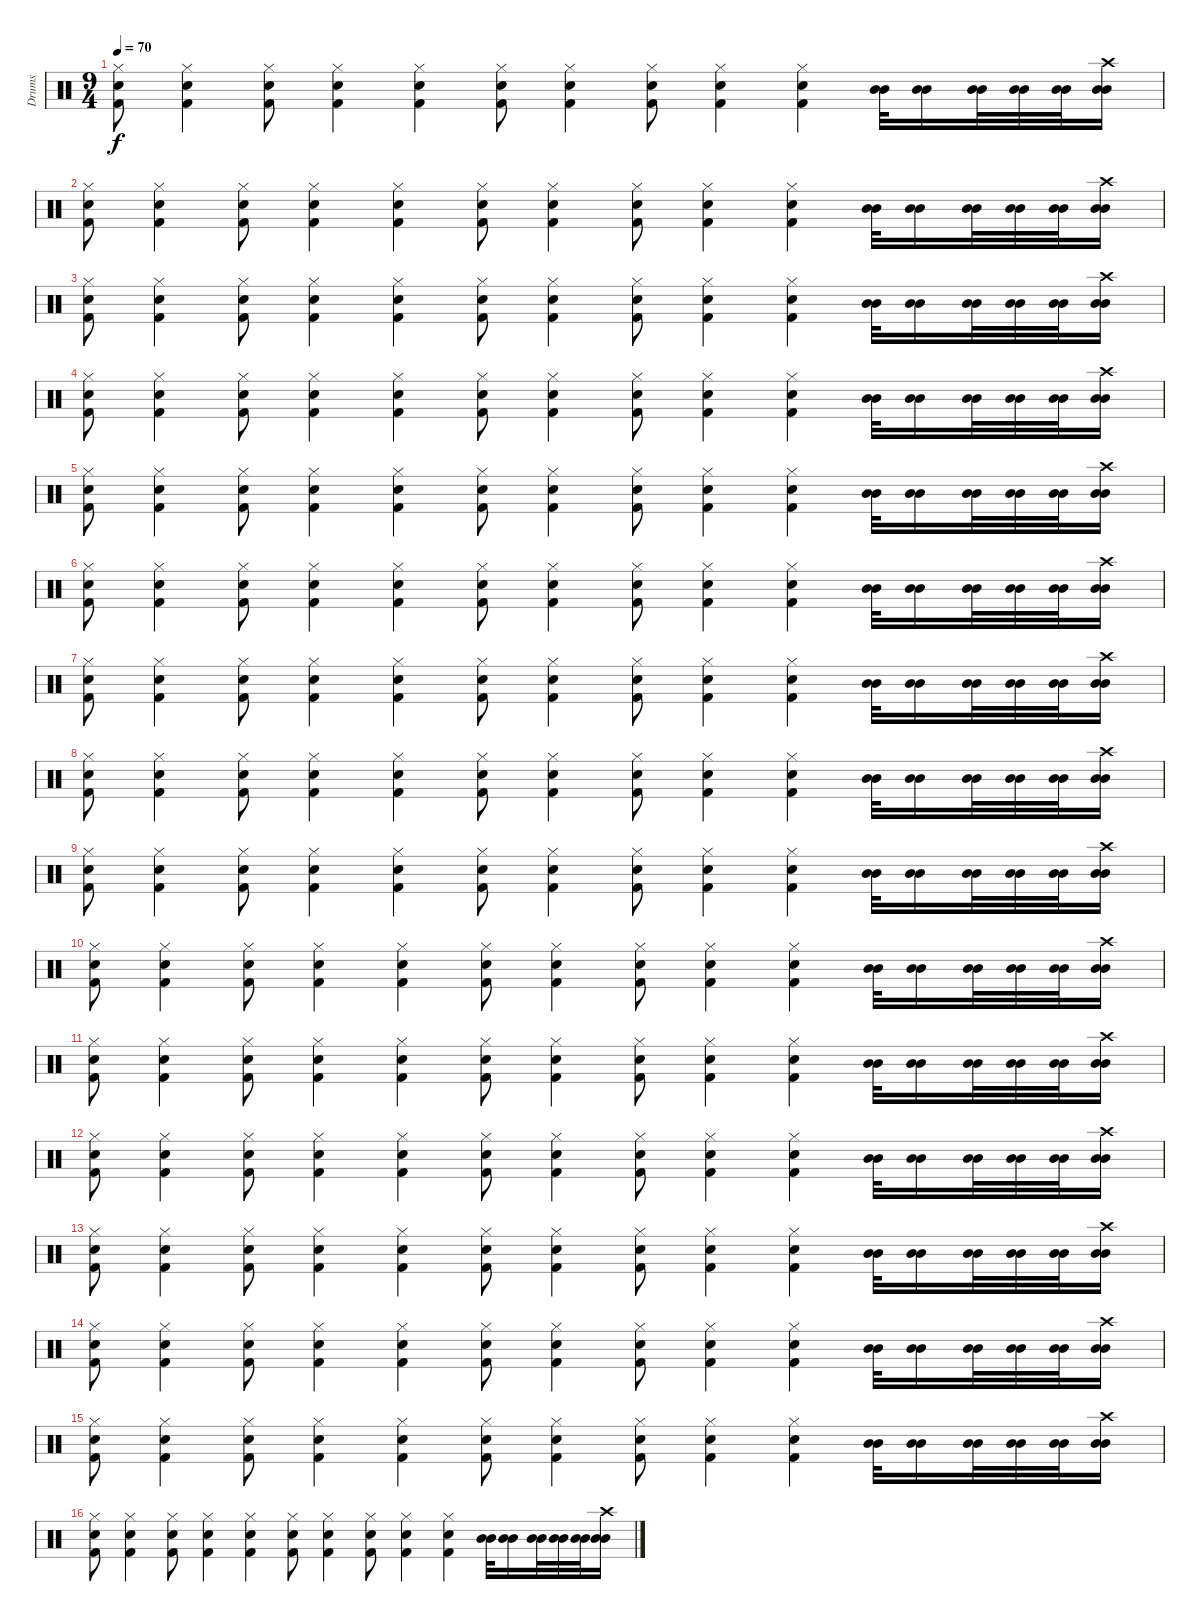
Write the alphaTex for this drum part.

\track ("Drums" "Drums") {instrument percussion}
\staff {score}
\articulation defaults
\ts (9 4)
\tempo 70
\clef neutral
\ks c
("Hi-Hat (closed)" "Snare (hit) 2" "Kick (hit) 2").8{dy f} ("Hi-Hat (closed)" "Snare (hit) 2" "Kick (hit) 2").4 ("Hi-Hat (closed)" "Snare (hit) 2" "Kick (hit) 2").8 ("Hi-Hat (closed)" "Snare (hit) 2" "Kick (hit) 2").4 ("Hi-Hat (closed)" "Snare (hit) 2" "Kick (hit) 2").4 ("Hi-Hat (closed)" "Snare (hit) 2" "Kick (hit) 2").8 ("Hi-Hat (closed)" "Snare (hit) 2" "Kick (hit) 2").4 ("Hi-Hat (closed)" "Snare (hit) 2" "Kick (hit) 2").8 ("Hi-Hat (closed)" "Snare (hit) 2" "Kick (hit) 2").4 ("Hi-Hat (closed)" "Snare (hit) 2" "Kick (hit) 2").4 ("Mid Tom (hit)" "Mid Tom (hit)").32 ("Mid Tom (hit)" "Mid Tom (hit)").16 ("Mid Tom (hit)" "Mid Tom (hit)").32 ("Mid Tom (hit)" "Mid Tom (hit)").32 ("Mid Tom (hit)" "Mid Tom (hit)").32 ("Crash high (hit)" "Mid Tom (hit)" "Mid Tom (hit)").16 |
("Hi-Hat (closed)" "Snare (hit) 2" "Kick (hit) 2").8 ("Hi-Hat (closed)" "Snare (hit) 2" "Kick (hit) 2").4 ("Hi-Hat (closed)" "Snare (hit) 2" "Kick (hit) 2").8 ("Hi-Hat (closed)" "Snare (hit) 2" "Kick (hit) 2").4 ("Hi-Hat (closed)" "Snare (hit) 2" "Kick (hit) 2").4 ("Hi-Hat (closed)" "Snare (hit) 2" "Kick (hit) 2").8 ("Hi-Hat (closed)" "Snare (hit) 2" "Kick (hit) 2").4 ("Hi-Hat (closed)" "Snare (hit) 2" "Kick (hit) 2").8 ("Hi-Hat (closed)" "Snare (hit) 2" "Kick (hit) 2").4 ("Hi-Hat (closed)" "Snare (hit) 2" "Kick (hit) 2").4 ("Mid Tom (hit)" "Mid Tom (hit)").32 ("Mid Tom (hit)" "Mid Tom (hit)").16 ("Mid Tom (hit)" "Mid Tom (hit)").32 ("Mid Tom (hit)" "Mid Tom (hit)").32 ("Mid Tom (hit)" "Mid Tom (hit)").32 ("Crash high (hit)" "Mid Tom (hit)" "Mid Tom (hit)").16 |
("Hi-Hat (closed)" "Snare (hit) 2" "Kick (hit) 2").8 ("Hi-Hat (closed)" "Snare (hit) 2" "Kick (hit) 2").4 ("Hi-Hat (closed)" "Snare (hit) 2" "Kick (hit) 2").8 ("Hi-Hat (closed)" "Snare (hit) 2" "Kick (hit) 2").4 ("Hi-Hat (closed)" "Snare (hit) 2" "Kick (hit) 2").4 ("Hi-Hat (closed)" "Snare (hit) 2" "Kick (hit) 2").8 ("Hi-Hat (closed)" "Snare (hit) 2" "Kick (hit) 2").4 ("Hi-Hat (closed)" "Snare (hit) 2" "Kick (hit) 2").8 ("Hi-Hat (closed)" "Snare (hit) 2" "Kick (hit) 2").4 ("Hi-Hat (closed)" "Snare (hit) 2" "Kick (hit) 2").4 ("Mid Tom (hit)" "Mid Tom (hit)").32 ("Mid Tom (hit)" "Mid Tom (hit)").16 ("Mid Tom (hit)" "Mid Tom (hit)").32 ("Mid Tom (hit)" "Mid Tom (hit)").32 ("Mid Tom (hit)" "Mid Tom (hit)").32 ("Crash high (hit)" "Mid Tom (hit)" "Mid Tom (hit)").16 |
("Hi-Hat (closed)" "Snare (hit) 2" "Kick (hit) 2").8 ("Hi-Hat (closed)" "Snare (hit) 2" "Kick (hit) 2").4 ("Hi-Hat (closed)" "Snare (hit) 2" "Kick (hit) 2").8 ("Hi-Hat (closed)" "Snare (hit) 2" "Kick (hit) 2").4 ("Hi-Hat (closed)" "Snare (hit) 2" "Kick (hit) 2").4 ("Hi-Hat (closed)" "Snare (hit) 2" "Kick (hit) 2").8 ("Hi-Hat (closed)" "Snare (hit) 2" "Kick (hit) 2").4 ("Hi-Hat (closed)" "Snare (hit) 2" "Kick (hit) 2").8 ("Hi-Hat (closed)" "Snare (hit) 2" "Kick (hit) 2").4 ("Hi-Hat (closed)" "Snare (hit) 2" "Kick (hit) 2").4 ("Mid Tom (hit)" "Mid Tom (hit)").32 ("Mid Tom (hit)" "Mid Tom (hit)").16 ("Mid Tom (hit)" "Mid Tom (hit)").32 ("Mid Tom (hit)" "Mid Tom (hit)").32 ("Mid Tom (hit)" "Mid Tom (hit)").32 ("Crash high (hit)" "Mid Tom (hit)" "Mid Tom (hit)").16 |
("Hi-Hat (closed)" "Snare (hit) 2" "Kick (hit) 2").8 ("Hi-Hat (closed)" "Snare (hit) 2" "Kick (hit) 2").4 ("Hi-Hat (closed)" "Snare (hit) 2" "Kick (hit) 2").8 ("Hi-Hat (closed)" "Snare (hit) 2" "Kick (hit) 2").4 ("Hi-Hat (closed)" "Snare (hit) 2" "Kick (hit) 2").4 ("Hi-Hat (closed)" "Snare (hit) 2" "Kick (hit) 2").8 ("Hi-Hat (closed)" "Snare (hit) 2" "Kick (hit) 2").4 ("Hi-Hat (closed)" "Snare (hit) 2" "Kick (hit) 2").8 ("Hi-Hat (closed)" "Snare (hit) 2" "Kick (hit) 2").4 ("Hi-Hat (closed)" "Snare (hit) 2" "Kick (hit) 2").4 ("Mid Tom (hit)" "Mid Tom (hit)").32 ("Mid Tom (hit)" "Mid Tom (hit)").16 ("Mid Tom (hit)" "Mid Tom (hit)").32 ("Mid Tom (hit)" "Mid Tom (hit)").32 ("Mid Tom (hit)" "Mid Tom (hit)").32 ("Crash high (hit)" "Mid Tom (hit)" "Mid Tom (hit)").16 |
("Hi-Hat (closed)" "Snare (hit) 2" "Kick (hit) 2").8 ("Hi-Hat (closed)" "Snare (hit) 2" "Kick (hit) 2").4 ("Hi-Hat (closed)" "Snare (hit) 2" "Kick (hit) 2").8 ("Hi-Hat (closed)" "Snare (hit) 2" "Kick (hit) 2").4 ("Hi-Hat (closed)" "Snare (hit) 2" "Kick (hit) 2").4 ("Hi-Hat (closed)" "Snare (hit) 2" "Kick (hit) 2").8 ("Hi-Hat (closed)" "Snare (hit) 2" "Kick (hit) 2").4 ("Hi-Hat (closed)" "Snare (hit) 2" "Kick (hit) 2").8 ("Hi-Hat (closed)" "Snare (hit) 2" "Kick (hit) 2").4 ("Hi-Hat (closed)" "Snare (hit) 2" "Kick (hit) 2").4 ("Mid Tom (hit)" "Mid Tom (hit)").32 ("Mid Tom (hit)" "Mid Tom (hit)").16 ("Mid Tom (hit)" "Mid Tom (hit)").32 ("Mid Tom (hit)" "Mid Tom (hit)").32 ("Mid Tom (hit)" "Mid Tom (hit)").32 ("Crash high (hit)" "Mid Tom (hit)" "Mid Tom (hit)").16 |
("Hi-Hat (closed)" "Snare (hit) 2" "Kick (hit) 2").8 ("Hi-Hat (closed)" "Snare (hit) 2" "Kick (hit) 2").4 ("Hi-Hat (closed)" "Snare (hit) 2" "Kick (hit) 2").8 ("Hi-Hat (closed)" "Snare (hit) 2" "Kick (hit) 2").4 ("Hi-Hat (closed)" "Snare (hit) 2" "Kick (hit) 2").4 ("Hi-Hat (closed)" "Snare (hit) 2" "Kick (hit) 2").8 ("Hi-Hat (closed)" "Snare (hit) 2" "Kick (hit) 2").4 ("Hi-Hat (closed)" "Snare (hit) 2" "Kick (hit) 2").8 ("Hi-Hat (closed)" "Snare (hit) 2" "Kick (hit) 2").4 ("Hi-Hat (closed)" "Snare (hit) 2" "Kick (hit) 2").4 ("Mid Tom (hit)" "Mid Tom (hit)").32 ("Mid Tom (hit)" "Mid Tom (hit)").16 ("Mid Tom (hit)" "Mid Tom (hit)").32 ("Mid Tom (hit)" "Mid Tom (hit)").32 ("Mid Tom (hit)" "Mid Tom (hit)").32 ("Crash high (hit)" "Mid Tom (hit)" "Mid Tom (hit)").16 |
("Hi-Hat (closed)" "Snare (hit) 2" "Kick (hit) 2").8 ("Hi-Hat (closed)" "Snare (hit) 2" "Kick (hit) 2").4 ("Hi-Hat (closed)" "Snare (hit) 2" "Kick (hit) 2").8 ("Hi-Hat (closed)" "Snare (hit) 2" "Kick (hit) 2").4 ("Hi-Hat (closed)" "Snare (hit) 2" "Kick (hit) 2").4 ("Hi-Hat (closed)" "Snare (hit) 2" "Kick (hit) 2").8 ("Hi-Hat (closed)" "Snare (hit) 2" "Kick (hit) 2").4 ("Hi-Hat (closed)" "Snare (hit) 2" "Kick (hit) 2").8 ("Hi-Hat (closed)" "Snare (hit) 2" "Kick (hit) 2").4 ("Hi-Hat (closed)" "Snare (hit) 2" "Kick (hit) 2").4 ("Mid Tom (hit)" "Mid Tom (hit)").32 ("Mid Tom (hit)" "Mid Tom (hit)").16 ("Mid Tom (hit)" "Mid Tom (hit)").32 ("Mid Tom (hit)" "Mid Tom (hit)").32 ("Mid Tom (hit)" "Mid Tom (hit)").32 ("Crash high (hit)" "Mid Tom (hit)" "Mid Tom (hit)").16 |
("Hi-Hat (closed)" "Snare (hit) 2" "Kick (hit) 2").8 ("Hi-Hat (closed)" "Snare (hit) 2" "Kick (hit) 2").4 ("Hi-Hat (closed)" "Snare (hit) 2" "Kick (hit) 2").8 ("Hi-Hat (closed)" "Snare (hit) 2" "Kick (hit) 2").4 ("Hi-Hat (closed)" "Snare (hit) 2" "Kick (hit) 2").4 ("Hi-Hat (closed)" "Snare (hit) 2" "Kick (hit) 2").8 ("Hi-Hat (closed)" "Snare (hit) 2" "Kick (hit) 2").4 ("Hi-Hat (closed)" "Snare (hit) 2" "Kick (hit) 2").8 ("Hi-Hat (closed)" "Snare (hit) 2" "Kick (hit) 2").4 ("Hi-Hat (closed)" "Snare (hit) 2" "Kick (hit) 2").4 ("Mid Tom (hit)" "Mid Tom (hit)").32 ("Mid Tom (hit)" "Mid Tom (hit)").16 ("Mid Tom (hit)" "Mid Tom (hit)").32 ("Mid Tom (hit)" "Mid Tom (hit)").32 ("Mid Tom (hit)" "Mid Tom (hit)").32 ("Crash high (hit)" "Mid Tom (hit)" "Mid Tom (hit)").16 |
("Hi-Hat (closed)" "Snare (hit) 2" "Kick (hit) 2").8 ("Hi-Hat (closed)" "Snare (hit) 2" "Kick (hit) 2").4 ("Hi-Hat (closed)" "Snare (hit) 2" "Kick (hit) 2").8 ("Hi-Hat (closed)" "Snare (hit) 2" "Kick (hit) 2").4 ("Hi-Hat (closed)" "Snare (hit) 2" "Kick (hit) 2").4 ("Hi-Hat (closed)" "Snare (hit) 2" "Kick (hit) 2").8 ("Hi-Hat (closed)" "Snare (hit) 2" "Kick (hit) 2").4 ("Hi-Hat (closed)" "Snare (hit) 2" "Kick (hit) 2").8 ("Hi-Hat (closed)" "Snare (hit) 2" "Kick (hit) 2").4 ("Hi-Hat (closed)" "Snare (hit) 2" "Kick (hit) 2").4 ("Mid Tom (hit)" "Mid Tom (hit)").32 ("Mid Tom (hit)" "Mid Tom (hit)").16 ("Mid Tom (hit)" "Mid Tom (hit)").32 ("Mid Tom (hit)" "Mid Tom (hit)").32 ("Mid Tom (hit)" "Mid Tom (hit)").32 ("Crash high (hit)" "Mid Tom (hit)" "Mid Tom (hit)").16 |
("Hi-Hat (closed)" "Snare (hit) 2" "Kick (hit) 2").8 ("Hi-Hat (closed)" "Snare (hit) 2" "Kick (hit) 2").4 ("Hi-Hat (closed)" "Snare (hit) 2" "Kick (hit) 2").8 ("Hi-Hat (closed)" "Snare (hit) 2" "Kick (hit) 2").4 ("Hi-Hat (closed)" "Snare (hit) 2" "Kick (hit) 2").4 ("Hi-Hat (closed)" "Snare (hit) 2" "Kick (hit) 2").8 ("Hi-Hat (closed)" "Snare (hit) 2" "Kick (hit) 2").4 ("Hi-Hat (closed)" "Snare (hit) 2" "Kick (hit) 2").8 ("Hi-Hat (closed)" "Snare (hit) 2" "Kick (hit) 2").4 ("Hi-Hat (closed)" "Snare (hit) 2" "Kick (hit) 2").4 ("Mid Tom (hit)" "Mid Tom (hit)").32 ("Mid Tom (hit)" "Mid Tom (hit)").16 ("Mid Tom (hit)" "Mid Tom (hit)").32 ("Mid Tom (hit)" "Mid Tom (hit)").32 ("Mid Tom (hit)" "Mid Tom (hit)").32 ("Crash high (hit)" "Mid Tom (hit)" "Mid Tom (hit)").16 |
("Hi-Hat (closed)" "Snare (hit) 2" "Kick (hit) 2").8 ("Hi-Hat (closed)" "Snare (hit) 2" "Kick (hit) 2").4 ("Hi-Hat (closed)" "Snare (hit) 2" "Kick (hit) 2").8 ("Hi-Hat (closed)" "Snare (hit) 2" "Kick (hit) 2").4 ("Hi-Hat (closed)" "Snare (hit) 2" "Kick (hit) 2").4 ("Hi-Hat (closed)" "Snare (hit) 2" "Kick (hit) 2").8 ("Hi-Hat (closed)" "Snare (hit) 2" "Kick (hit) 2").4 ("Hi-Hat (closed)" "Snare (hit) 2" "Kick (hit) 2").8 ("Hi-Hat (closed)" "Snare (hit) 2" "Kick (hit) 2").4 ("Hi-Hat (closed)" "Snare (hit) 2" "Kick (hit) 2").4 ("Mid Tom (hit)" "Mid Tom (hit)").32 ("Mid Tom (hit)" "Mid Tom (hit)").16 ("Mid Tom (hit)" "Mid Tom (hit)").32 ("Mid Tom (hit)" "Mid Tom (hit)").32 ("Mid Tom (hit)" "Mid Tom (hit)").32 ("Crash high (hit)" "Mid Tom (hit)" "Mid Tom (hit)").16 |
("Hi-Hat (closed)" "Snare (hit) 2" "Kick (hit) 2").8 ("Hi-Hat (closed)" "Snare (hit) 2" "Kick (hit) 2").4 ("Hi-Hat (closed)" "Snare (hit) 2" "Kick (hit) 2").8 ("Hi-Hat (closed)" "Snare (hit) 2" "Kick (hit) 2").4 ("Hi-Hat (closed)" "Snare (hit) 2" "Kick (hit) 2").4 ("Hi-Hat (closed)" "Snare (hit) 2" "Kick (hit) 2").8 ("Hi-Hat (closed)" "Snare (hit) 2" "Kick (hit) 2").4 ("Hi-Hat (closed)" "Snare (hit) 2" "Kick (hit) 2").8 ("Hi-Hat (closed)" "Snare (hit) 2" "Kick (hit) 2").4 ("Hi-Hat (closed)" "Snare (hit) 2" "Kick (hit) 2").4 ("Mid Tom (hit)" "Mid Tom (hit)").32 ("Mid Tom (hit)" "Mid Tom (hit)").16 ("Mid Tom (hit)" "Mid Tom (hit)").32 ("Mid Tom (hit)" "Mid Tom (hit)").32 ("Mid Tom (hit)" "Mid Tom (hit)").32 ("Crash high (hit)" "Mid Tom (hit)" "Mid Tom (hit)").16 |
("Hi-Hat (closed)" "Snare (hit) 2" "Kick (hit) 2").8 ("Hi-Hat (closed)" "Snare (hit) 2" "Kick (hit) 2").4 ("Hi-Hat (closed)" "Snare (hit) 2" "Kick (hit) 2").8 ("Hi-Hat (closed)" "Snare (hit) 2" "Kick (hit) 2").4 ("Hi-Hat (closed)" "Snare (hit) 2" "Kick (hit) 2").4 ("Hi-Hat (closed)" "Snare (hit) 2" "Kick (hit) 2").8 ("Hi-Hat (closed)" "Snare (hit) 2" "Kick (hit) 2").4 ("Hi-Hat (closed)" "Snare (hit) 2" "Kick (hit) 2").8 ("Hi-Hat (closed)" "Snare (hit) 2" "Kick (hit) 2").4 ("Hi-Hat (closed)" "Snare (hit) 2" "Kick (hit) 2").4 ("Mid Tom (hit)" "Mid Tom (hit)").32 ("Mid Tom (hit)" "Mid Tom (hit)").16 ("Mid Tom (hit)" "Mid Tom (hit)").32 ("Mid Tom (hit)" "Mid Tom (hit)").32 ("Mid Tom (hit)" "Mid Tom (hit)").32 ("Crash high (hit)" "Mid Tom (hit)" "Mid Tom (hit)").16 |
("Hi-Hat (closed)" "Snare (hit) 2" "Kick (hit) 2").8 ("Hi-Hat (closed)" "Snare (hit) 2" "Kick (hit) 2").4 ("Hi-Hat (closed)" "Snare (hit) 2" "Kick (hit) 2").8 ("Hi-Hat (closed)" "Snare (hit) 2" "Kick (hit) 2").4 ("Hi-Hat (closed)" "Snare (hit) 2" "Kick (hit) 2").4 ("Hi-Hat (closed)" "Snare (hit) 2" "Kick (hit) 2").8 ("Hi-Hat (closed)" "Snare (hit) 2" "Kick (hit) 2").4 ("Hi-Hat (closed)" "Snare (hit) 2" "Kick (hit) 2").8 ("Hi-Hat (closed)" "Snare (hit) 2" "Kick (hit) 2").4 ("Hi-Hat (closed)" "Snare (hit) 2" "Kick (hit) 2").4 ("Mid Tom (hit)" "Mid Tom (hit)").32 ("Mid Tom (hit)" "Mid Tom (hit)").16 ("Mid Tom (hit)" "Mid Tom (hit)").32 ("Mid Tom (hit)" "Mid Tom (hit)").32 ("Mid Tom (hit)" "Mid Tom (hit)").32 ("Crash high (hit)" "Mid Tom (hit)" "Mid Tom (hit)").16 |
("Hi-Hat (closed)" "Snare (hit) 2" "Kick (hit) 2").8 ("Hi-Hat (closed)" "Snare (hit) 2" "Kick (hit) 2").4 ("Hi-Hat (closed)" "Snare (hit) 2" "Kick (hit) 2").8 ("Hi-Hat (closed)" "Snare (hit) 2" "Kick (hit) 2").4 ("Hi-Hat (closed)" "Snare (hit) 2" "Kick (hit) 2").4 ("Hi-Hat (closed)" "Snare (hit) 2" "Kick (hit) 2").8 ("Hi-Hat (closed)" "Snare (hit) 2" "Kick (hit) 2").4 ("Hi-Hat (closed)" "Snare (hit) 2" "Kick (hit) 2").8 ("Hi-Hat (closed)" "Snare (hit) 2" "Kick (hit) 2").4 ("Hi-Hat (closed)" "Snare (hit) 2" "Kick (hit) 2").4 ("Mid Tom (hit)" "Mid Tom (hit)").32 ("Mid Tom (hit)" "Mid Tom (hit)").16 ("Mid Tom (hit)" "Mid Tom (hit)").32 ("Mid Tom (hit)" "Mid Tom (hit)").32 ("Mid Tom (hit)" "Mid Tom (hit)").32 ("Crash high (hit)" "Mid Tom (hit)" "Mid Tom (hit)").16
